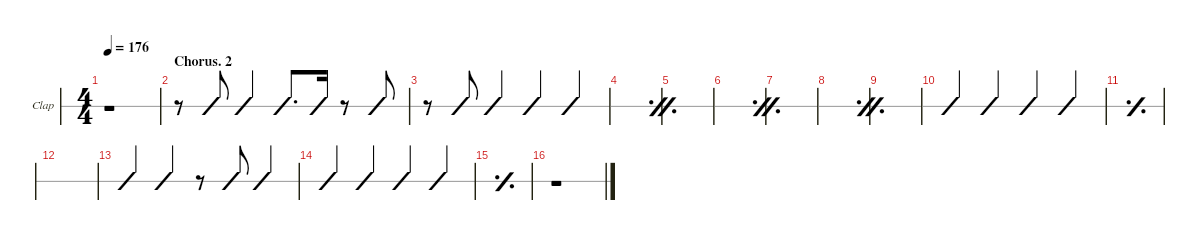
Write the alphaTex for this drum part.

\defaultSystemsLayout 4
\hideDynamics
\bracketExtendMode nobrackets
\firstSystemTrackNameOrientation horizontal
\track ("Clap" "Clap") {defaultSystemsLayout 4 instrument percussion}
\staff {slash}
\articulation defaults
\ts (4 4)
\tempo 176
\clef neutral
\ks f#
r.1{dy f} |
\section ("" "Chorus. 2")
r.8 "Hand Clap (hit)"{acc forcenatural}.8 "Hand Clap (hit)"{acc forcenatural}.4 "Hand Clap (hit)"{acc forcenatural}.8{d} "Hand Clap (hit)"{acc forcenatural}.16{beam split} r.8{beam split} "Hand Clap (hit)"{acc forcenatural}.8 |
r.8 "Hand Clap (hit)"{acc forcenatural}.8 "Hand Clap (hit)"{acc forcenatural}.4 "Hand Clap (hit)"{acc forcenatural}.4 "Hand Clap (hit)"{acc forcenatural}.4 |
\simile firstofdouble
|
\simile secondofdouble
|
\simile firstofdouble
|
\simile secondofdouble
|
\simile firstofdouble
|
\simile secondofdouble
|
\simile none "Hand Clap (hit)"{acc forcenatural}.4 "Hand Clap (hit)"{acc forcenatural}.4 "Hand Clap (hit)"{acc forcenatural}.4 "Hand Clap (hit)"{acc forcenatural}.4
|
\simile simple
|
|
\simile none "Hand Clap (hit)"{acc forcenatural}.4 "Hand Clap (hit)"{acc forcenatural}.4
r.8 "Hand Clap (hit)"{acc forcenatural}.8 "Hand Clap (hit)"{acc forcenatural}.4 |
"Hand Clap (hit)"{acc forcenatural}.4 "Hand Clap (hit)"{acc forcenatural}.4 "Hand Clap (hit)"{acc forcenatural}.4 "Hand Clap (hit)"{acc forcenatural}.4 |
\simile simple
|
\simile none
r.1
